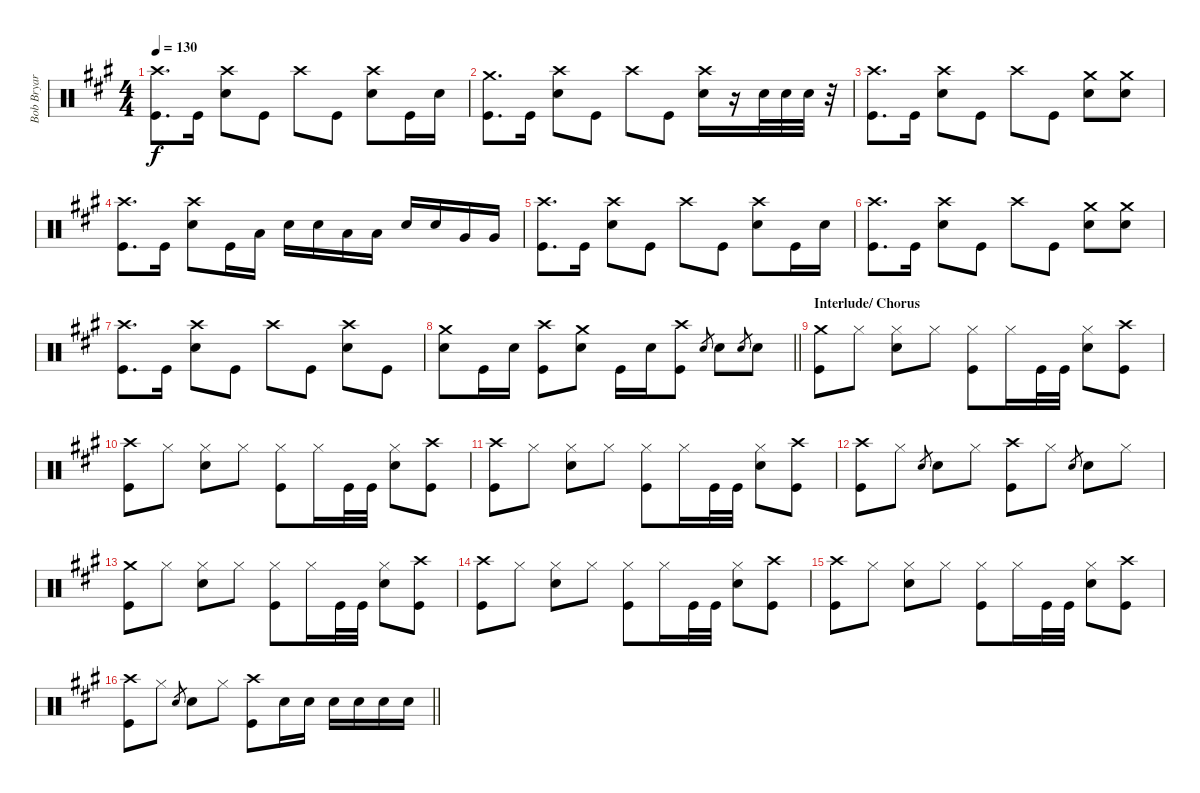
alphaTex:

\track ("Bob Bryar" "Bob Bryar") {instrument percussion}
\staff {score}
\articulation defaults
\ts (4 4)
\tempo 130
\clef neutral
\ks a
("Crash high (hit)" "Kick (hit)").8{d dy f} "Kick (hit)".16 ("Crash high (hit)" "Snare (hit) 2").8 "Kick (hit)".8 "Crash high (hit)".8 "Kick (hit)".8 ("Crash high (hit)" "Snare (hit) 2").8 "Kick (hit)".16 "Snare (hit) 2".16 |
("Crash medium (hit)" "Kick (hit)").8{d} "Kick (hit)".16 ("Crash high (hit)" "Snare (hit) 2").8 "Kick (hit)".8 "Crash high (hit)".8 "Kick (hit)".8 ("Crash high (hit)" "Snare (hit) 2").16 r.16 "Snare (hit) 2".32 "Snare (hit) 2".32 "Snare (hit) 2".32 r.32 |
("Crash high (hit)" "Kick (hit)").8{d} "Kick (hit)".16 ("Crash high (hit)" "Snare (hit) 2").8 "Kick (hit)".8 "Crash high (hit)".8 "Kick (hit)".8 ("Crash medium (hit)" "Snare (hit) 2").8 ("Crash medium (hit)" "Snare (hit) 2").8 |
("Crash high (hit)" "Kick (hit)").8{d} "Kick (hit)".16 ("Crash high (hit)" "Snare (hit) 2").8 "Kick (hit)".16 "Low Tom (hit)".16 "Snare (hit) 2".16 "Snare (hit) 2".16 "Low Tom (hit)".16 "Low Tom (hit)".16 "Snare (hit) 2".16 "Snare (hit) 2".16 "Very Low Tom (hit)".16 "Very Low Tom (hit)".16 |
("Crash high (hit)" "Kick (hit)").8{d} "Kick (hit)".16 ("Crash high (hit)" "Snare (hit) 2").8 "Kick (hit)".8 "Crash high (hit)".8 "Kick (hit)".8 ("Crash high (hit)" "Snare (hit) 2").8 "Kick (hit)".16 "Snare (hit) 2".16 |
("Crash high (hit)" "Kick (hit)").8{d} "Kick (hit)".16 ("Crash high (hit)" "Snare (hit) 2").8 "Kick (hit)".8 "Crash high (hit)".8 "Kick (hit)".8 ("Crash medium (hit)" "Snare (hit) 2").8 ("Crash medium (hit)" "Snare (hit) 2").8 |
("Crash high (hit)" "Kick (hit)").8{d} "Kick (hit)".16 ("Crash high (hit)" "Snare (hit) 2").8 "Kick (hit)".8 "Crash high (hit)".8 "Kick (hit)".8 ("Crash high (hit)" "Snare (hit) 2").8 "Kick (hit)".8 |
\barLineRight lightlight
("Crash medium (hit)" "Snare (hit) 2").8 "Kick (hit)".16 "Snare (hit) 2".16 ("Crash high (hit)" "Kick (hit)").8 ("Crash medium (hit)" "Snare (hit) 2").8 "Kick (hit)".16 "Snare (hit) 2".16 ("Crash high (hit)" "Kick (hit)").8 "Snare (hit) 2".8{gr} "Snare (hit) 2".8 "Snare (hit) 2".8{gr} "Snare (hit) 2".8 |
\section ("" "Interlude/ Chorus")
("Crash medium (hit)" "Kick (hit)").8 "Hi-Hat (closed)".8 ("Hi-Hat (closed)" "Snare (hit) 2").8 "Hi-Hat (closed)".8 ("Hi-Hat (closed)" "Kick (hit)").8 "Hi-Hat (closed)".16 "Kick (hit)".32 "Kick (hit)".32 ("Hi-Hat (closed)" "Snare (hit) 2").8 ("Crash high (hit)" "Kick (hit)").8 |
("Crash high (hit)" "Kick (hit)").8 "Hi-Hat (closed)".8 ("Hi-Hat (closed)" "Snare (hit) 2").8 "Hi-Hat (closed)".8 ("Hi-Hat (closed)" "Kick (hit)").8 "Hi-Hat (closed)".16 "Kick (hit)".32 "Kick (hit)".32 ("Hi-Hat (closed)" "Snare (hit) 2").8 ("Crash high (hit)" "Kick (hit)").8 |
("Crash high (hit)" "Kick (hit)").8 "Hi-Hat (closed)".8 ("Hi-Hat (closed)" "Snare (hit) 2").8 "Hi-Hat (closed)".8 ("Hi-Hat (closed)" "Kick (hit)").8 "Hi-Hat (closed)".16 "Kick (hit)".32 "Kick (hit)".32 ("Hi-Hat (closed)" "Snare (hit) 2").8 ("Crash high (hit)" "Kick (hit)").8 |
("Crash high (hit)" "Kick (hit)").8 "Hi-Hat (closed)".8 "Snare (hit) 2".8{gr} "Snare (hit) 2".8 "Hi-Hat (closed)".8 ("Crash high (hit)" "Kick (hit)").8 "Hi-Hat (closed)".8 "Snare (hit) 2".8{gr} "Snare (hit) 2".8 "Hi-Hat (closed)".8 |
("Crash medium (hit)" "Kick (hit)").8 "Hi-Hat (closed)".8 ("Hi-Hat (closed)" "Snare (hit) 2").8 "Hi-Hat (closed)".8 ("Hi-Hat (closed)" "Kick (hit)").8 "Hi-Hat (closed)".16 "Kick (hit)".32 "Kick (hit)".32 ("Hi-Hat (closed)" "Snare (hit) 2").8 ("Crash high (hit)" "Kick (hit)").8 |
("Crash high (hit)" "Kick (hit)").8 "Hi-Hat (closed)".8 ("Hi-Hat (closed)" "Snare (hit) 2").8 "Hi-Hat (closed)".8 ("Hi-Hat (closed)" "Kick (hit)").8 "Hi-Hat (closed)".16 "Kick (hit)".32 "Kick (hit)".32 ("Hi-Hat (closed)" "Snare (hit) 2").8 ("Crash high (hit)" "Kick (hit)").8 |
("Crash high (hit)" "Kick (hit)").8 "Hi-Hat (closed)".8 ("Hi-Hat (closed)" "Snare (hit) 2").8 "Hi-Hat (closed)".8 ("Hi-Hat (closed)" "Kick (hit)").8 "Hi-Hat (closed)".16 "Kick (hit)".32 "Kick (hit)".32 ("Hi-Hat (closed)" "Snare (hit) 2").8 ("Crash high (hit)" "Kick (hit)").8 |
\barLineRight lightlight
("Crash high (hit)" "Kick (hit)").8 "Hi-Hat (closed)".8 "Snare (hit) 2".8{gr} "Snare (hit) 2".8 "Hi-Hat (closed)".8 ("Crash high (hit)" "Kick (hit)").8 "Snare (hit) 2".16 "Snare (hit) 2".16 "Snare (hit) 2".16 "Snare (hit) 2".16 "Snare (hit) 2".16 "Snare (hit) 2".16
